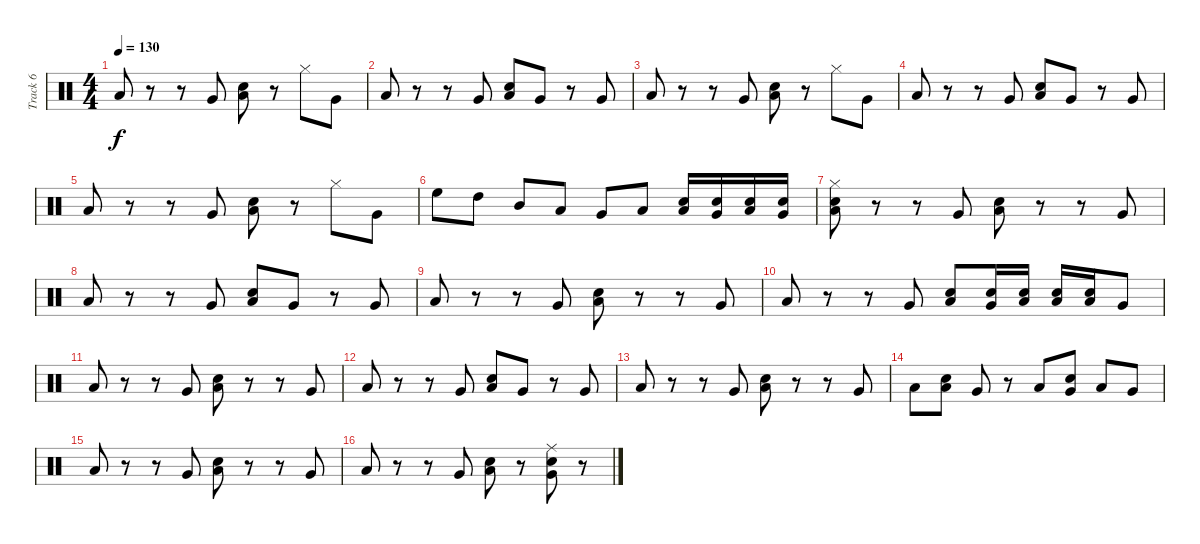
\track ("Track 6" "Track 6") {instrument percussion}
\staff {score}
\articulation defaults
\ts (4 4)
\tempo 130
\clef neutral
\ks c "Low Floor Tom (hit)".8{dy f}
r.8 r.8 "Very Low Tom (hit)".8 ("Low Tom (hit)" "Snare (hit) 2").8 r.8 "Hi-Hat (closed)".8 "Very Low Tom (hit)".8 |
"Low Floor Tom (hit)".8 r.8 r.8 "Very Low Tom (hit)".8 ("Low Tom (hit)" "Snare (hit) 2").8 "Very Low Tom (hit)".8 r.8 "Very Low Tom (hit)".8 |
"Low Floor Tom (hit)".8 r.8 r.8 "Very Low Tom (hit)".8 ("Low Tom (hit)" "Snare (hit) 2").8 r.8 "Hi-Hat (closed)".8 "Very Low Tom (hit)".8 |
"Low Floor Tom (hit)".8 r.8 r.8 "Very Low Tom (hit)".8 ("Low Tom (hit)" "Snare (hit) 2").8 "Very Low Tom (hit)".8 r.8 "Very Low Tom (hit)".8 |
"Low Floor Tom (hit)".8 r.8 r.8 "Very Low Tom (hit)".8 ("Low Tom (hit)" "Snare (hit) 2").8 r.8 "Hi-Hat (closed)".8 "Very Low Tom (hit)".8 |
"High Floor Tom (hit)".8 "High Tom (hit)".8 "Mid Tom (hit)".8 "Low Tom (hit)".8 "Very Low Tom (hit)".8 "Low Floor Tom (hit)".8 ("Low Tom (hit)" "Snare (hit) 2").16 ("Very Low Tom (hit)" "Snare (hit) 2").16 ("Low Tom (hit)" "Snare (hit) 2").16 ("Very Low Tom (hit)" "Snare (hit) 2").16 |
("Low Floor Tom (hit)" "Snare (hit) 2" "Hi-Hat (closed)").8 r.8 r.8 "Very Low Tom (hit)".8 ("Low Tom (hit)" "Snare (hit) 2").8 r.8 r.8 "Very Low Tom (hit)".8 |
"Low Floor Tom (hit)".8 r.8 r.8 "Very Low Tom (hit)".8 ("Low Tom (hit)" "Snare (hit) 2").8 "Very Low Tom (hit)".8 r.8 "Very Low Tom (hit)".8 |
"Low Floor Tom (hit)".8 r.8 r.8 "Very Low Tom (hit)".8 ("Low Tom (hit)" "Snare (hit) 2").8 r.8 r.8 "Very Low Tom (hit)".8 |
"Low Floor Tom (hit)".8 r.8 r.8 "Very Low Tom (hit)".8 ("Low Tom (hit)" "Snare (hit) 2").8 ("Very Low Tom (hit)" "Snare (hit) 2").16 ("Low Tom (hit)" "Snare (hit) 2").16 ("Low Floor Tom (hit)" "Snare (hit) 2").16 ("Low Tom (hit)" "Snare (hit) 2").16 "Very Low Tom (hit)".8 |
"Low Floor Tom (hit)".8 r.8 r.8 "Very Low Tom (hit)".8 ("Low Tom (hit)" "Snare (hit) 2").8 r.8 r.8 "Very Low Tom (hit)".8 |
"Low Floor Tom (hit)".8 r.8 r.8 "Very Low Tom (hit)".8 ("Low Tom (hit)" "Snare (hit) 2").8 "Very Low Tom (hit)".8 r.8 "Very Low Tom (hit)".8 |
"Low Floor Tom (hit)".8 r.8 r.8 "Very Low Tom (hit)".8 ("Low Tom (hit)" "Snare (hit) 2").8 r.8 r.8 "Very Low Tom (hit)".8 |
"Low Floor Tom (hit)".8 ("Snare (hit) 2" "Low Tom (hit)").8 "Very Low Tom (hit)".8 r.8 "Low Tom (hit)".8 ("Very Low Tom (hit)" "Snare (hit) 2").8 "Low Tom (hit)".8 "Very Low Tom (hit)".8 |
"Low Floor Tom (hit)".8 r.8 r.8 "Very Low Tom (hit)".8 ("Low Tom (hit)" "Snare (hit) 2").8 r.8 r.8 "Very Low Tom (hit)".8 |
"Low Floor Tom (hit)".8 r.8 r.8 "Very Low Tom (hit)".8 ("Low Tom (hit)" "Snare (hit) 2").8 r.8 ("Very Low Tom (hit)" "Snare (hit) 2" "Ride (middle)").8 r.8
